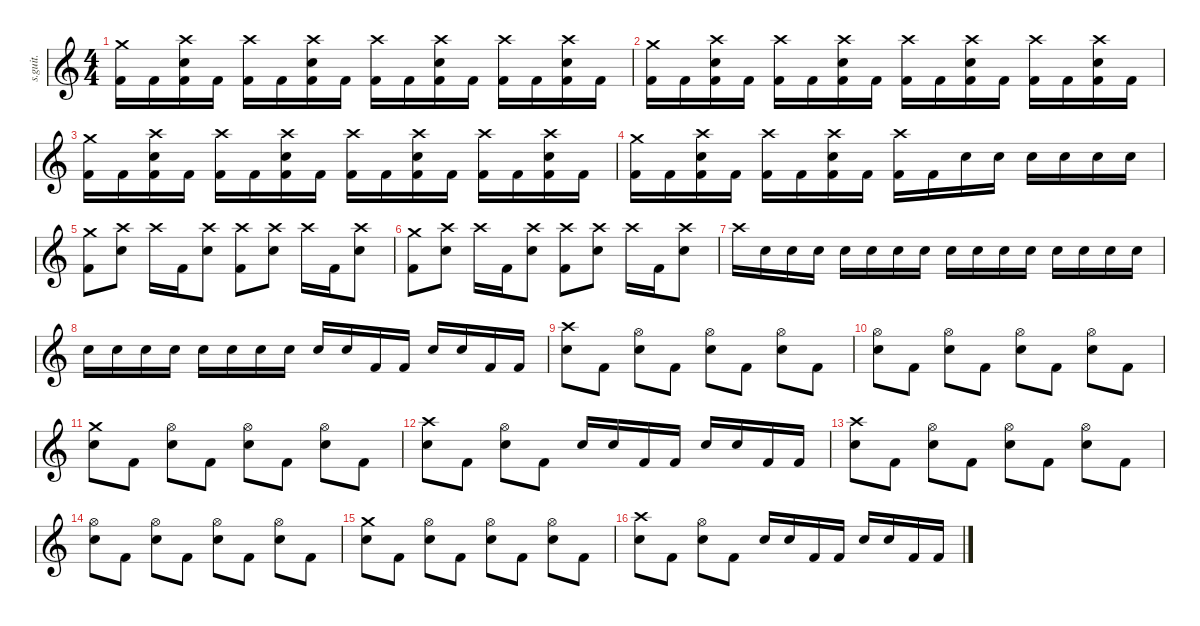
\defaultSystemsLayout 4
\hideDynamics
\bracketExtendMode nobrackets
\track ("Track 4" "s.guit.") {instrument percussion}
\staff {score}
\articulation defaults
\ts (4 4)
\tempo (163 hide)
\clef g2
\ks c
("Crash medium (hit)" "Kick (hit) 2").16{dy f} "Kick (hit) 2".16 ("Crash high (hit)" "Snare (hit) 2" "Kick (hit) 2").16 "Kick (hit) 2".16 ("Crash high (hit)" "Kick (hit) 2").16 "Kick (hit) 2".16 ("Crash high (hit)" "Snare (hit) 2" "Kick (hit) 2").16 "Kick (hit) 2".16 ("Crash high (hit)" "Kick (hit) 2").16 "Kick (hit) 2".16 ("Crash high (hit)" "Snare (hit) 2" "Kick (hit) 2").16 "Kick (hit) 2".16 ("Crash high (hit)" "Kick (hit) 2").16 "Kick (hit) 2".16 ("Crash high (hit)" "Snare (hit) 2" "Kick (hit) 2").16 "Kick (hit) 2".16 |
("Crash medium (hit)" "Kick (hit) 2").16 "Kick (hit) 2".16 ("Crash high (hit)" "Snare (hit) 2" "Kick (hit) 2").16 "Kick (hit) 2".16 ("Crash high (hit)" "Kick (hit) 2").16 "Kick (hit) 2".16 ("Crash high (hit)" "Snare (hit) 2" "Kick (hit) 2").16 "Kick (hit) 2".16 ("Crash high (hit)" "Kick (hit) 2").16 "Kick (hit) 2".16 ("Crash high (hit)" "Snare (hit) 2" "Kick (hit) 2").16 "Kick (hit) 2".16 ("Crash high (hit)" "Kick (hit) 2").16 "Kick (hit) 2".16 ("Crash high (hit)" "Snare (hit) 2" "Kick (hit) 2").16 "Kick (hit) 2".16 |
("Crash medium (hit)" "Kick (hit) 2").16 "Kick (hit) 2".16 ("Crash high (hit)" "Snare (hit) 2" "Kick (hit) 2").16 "Kick (hit) 2".16 ("Crash high (hit)" "Kick (hit) 2").16 "Kick (hit) 2".16 ("Crash high (hit)" "Snare (hit) 2" "Kick (hit) 2").16 "Kick (hit) 2".16 ("Crash high (hit)" "Kick (hit) 2").16 "Kick (hit) 2".16 ("Crash high (hit)" "Snare (hit) 2" "Kick (hit) 2").16 "Kick (hit) 2".16 ("Crash high (hit)" "Kick (hit) 2").16 "Kick (hit) 2".16 ("Crash high (hit)" "Snare (hit) 2" "Kick (hit) 2").16 "Kick (hit) 2".16 |
("Crash medium (hit)" "Kick (hit) 2").16 "Kick (hit) 2".16 ("Crash high (hit)" "Snare (hit) 2" "Kick (hit) 2").16 "Kick (hit) 2".16 ("Crash high (hit)" "Kick (hit) 2").16 "Kick (hit) 2".16 ("Crash high (hit)" "Snare (hit) 2" "Kick (hit) 2").16 "Kick (hit) 2".16 ("Crash high (hit)" "Kick (hit) 2").16 "Kick (hit) 2".16 "Snare (hit) 2".16 "Snare (hit) 2".16 "Snare (hit) 2".16 "Snare (hit) 2".16 "Snare (hit) 2".16 "Snare (hit) 2".16 |
("Crash medium (hit)" "Kick (hit) 2").8 ("Crash high (hit)" "Snare (hit) 2").8 "Crash high (hit)".16 "Kick (hit) 2".16 ("Crash high (hit)" "Snare (hit) 2").8 ("Crash high (hit)" "Kick (hit) 2").8 ("Crash high (hit)" "Snare (hit) 2").8 "Crash high (hit)".16 "Kick (hit) 2".16 ("Crash high (hit)" "Snare (hit) 2").8 |
("Crash medium (hit)" "Kick (hit) 2").8 ("Crash high (hit)" "Snare (hit) 2").8 "Crash high (hit)".16 "Kick (hit) 2".16 ("Crash high (hit)" "Snare (hit) 2").8 ("Crash high (hit)" "Kick (hit) 2").8 ("Crash high (hit)" "Snare (hit) 2").8 "Crash high (hit)".16 "Kick (hit) 2".16 ("Crash high (hit)" "Snare (hit) 2").8 |
"Crash high (hit)".16 "Snare (hit) 2".16 "Snare (hit) 2".16 "Snare (hit) 2".16 "Snare (hit) 2".16 "Snare (hit) 2".16 "Snare (hit) 2".16 "Snare (hit) 2".16 "Snare (hit) 2".16 "Snare (hit) 2".16 "Snare (hit) 2".16 "Snare (hit) 2".16 "Snare (hit) 2".16 "Snare (hit) 2".16 "Snare (hit) 2".16 "Snare (hit) 2".16 |
"Snare (hit) 2".16 "Snare (hit) 2".16 "Snare (hit) 2".16 "Snare (hit) 2".16 "Snare (hit) 2".16 "Snare (hit) 2".16 "Snare (hit) 2".16 "Snare (hit) 2".16 "Snare (hit) 2".16 "Snare (hit) 2".16 "Kick (hit) 2".16 "Kick (hit) 2".16 "Snare (hit) 2".16 "Snare (hit) 2".16 "Kick (hit) 2".16 "Kick (hit) 2".16 |
("Crash high (hit)" "Snare (hit) 2").8 "Kick (hit) 2".8 ("Hi-Hat (open)" "Snare (hit) 2").8 "Kick (hit) 2".8 ("Hi-Hat (open)" "Snare (hit) 2").8 "Kick (hit) 2".8 ("Hi-Hat (open)" "Snare (hit) 2").8 "Kick (hit) 2".8 |
("Hi-Hat (open)" "Snare (hit) 2").8 "Kick (hit) 2".8 ("Hi-Hat (open)" "Snare (hit) 2").8 "Kick (hit) 2".8 ("Hi-Hat (open)" "Snare (hit) 2").8 "Kick (hit) 2".8 ("Hi-Hat (open)" "Snare (hit) 2").8 "Kick (hit) 2".8 |
("Crash medium (hit)" "Snare (hit) 2").8 "Kick (hit) 2".8 ("Hi-Hat (open)" "Snare (hit) 2").8 "Kick (hit) 2".8 ("Hi-Hat (open)" "Snare (hit) 2").8 "Kick (hit) 2".8 ("Hi-Hat (open)" "Snare (hit) 2").8 "Kick (hit) 2".8 |
("Crash high (hit)" "Snare (hit) 2").8 "Kick (hit) 2".8 ("Hi-Hat (open)" "Snare (hit) 2").8 "Kick (hit) 2".8 "Snare (hit) 2".16 "Snare (hit) 2".16 "Kick (hit) 2".16 "Kick (hit) 2".16 "Snare (hit) 2".16 "Snare (hit) 2".16 "Kick (hit) 2".16 "Kick (hit) 2".16 |
("Crash high (hit)" "Snare (hit) 2").8 "Kick (hit) 2".8 ("Hi-Hat (open)" "Snare (hit) 2").8 "Kick (hit) 2".8 ("Hi-Hat (open)" "Snare (hit) 2").8 "Kick (hit) 2".8 ("Hi-Hat (open)" "Snare (hit) 2").8 "Kick (hit) 2".8 |
("Hi-Hat (open)" "Snare (hit) 2").8 "Kick (hit) 2".8 ("Hi-Hat (open)" "Snare (hit) 2").8 "Kick (hit) 2".8 ("Hi-Hat (open)" "Snare (hit) 2").8 "Kick (hit) 2".8 ("Hi-Hat (open)" "Snare (hit) 2").8 "Kick (hit) 2".8 |
("Crash medium (hit)" "Snare (hit) 2").8 "Kick (hit) 2".8 ("Hi-Hat (open)" "Snare (hit) 2").8 "Kick (hit) 2".8 ("Hi-Hat (open)" "Snare (hit) 2").8 "Kick (hit) 2".8 ("Hi-Hat (open)" "Snare (hit) 2").8 "Kick (hit) 2".8 |
("Crash high (hit)" "Snare (hit) 2").8 "Kick (hit) 2".8 ("Hi-Hat (open)" "Snare (hit) 2").8 "Kick (hit) 2".8 "Snare (hit) 2".16 "Snare (hit) 2".16 "Kick (hit) 2".16 "Kick (hit) 2".16 "Snare (hit) 2".16 "Snare (hit) 2".16 "Kick (hit) 2".16 "Kick (hit) 2".16
